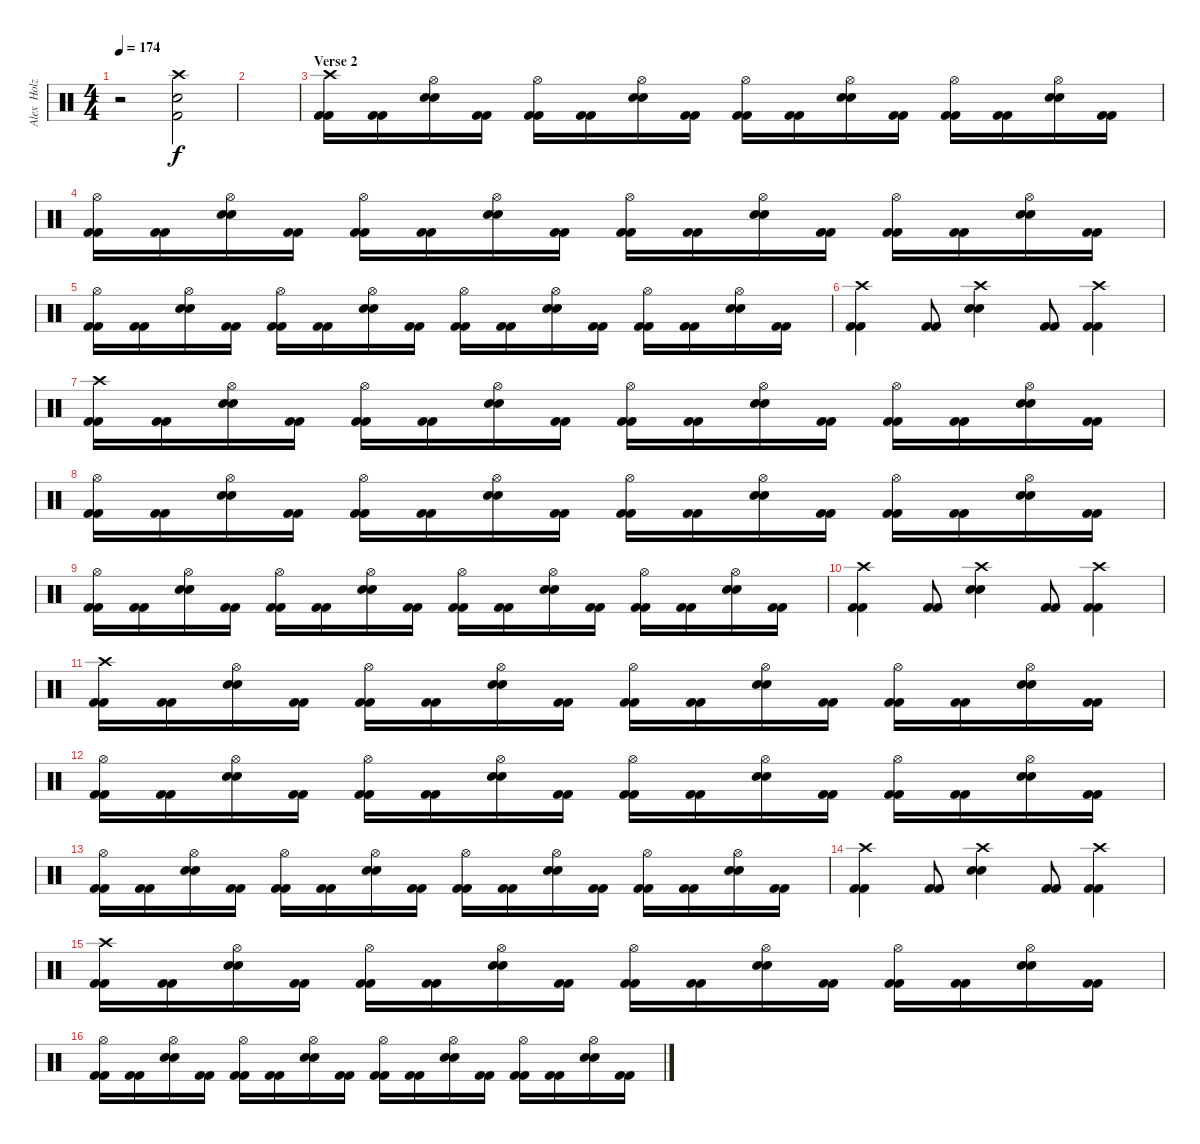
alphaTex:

\track ("Alex  Holzwarth (Drums)" "Alex  Holz") {instrument percussion}
\staff {score}
\articulation defaults
\ts (4 4)
\tempo 174
\clef neutral
\ks c
r.2{dy f} ("Crash high (hit)" "Snare (hit) 2" "Kick (hit) 2").2 |
|
\section ("" "Verse 2")
("Crash high (hit)" "Kick (hit) 2" "Kick (hit) 2").16 ("Kick (hit) 2" "Kick (hit) 2").16 ("Hi-Hat (open)" "Snare (hit) 2" "Snare (hit) 2").16 ("Kick (hit) 2" "Kick (hit) 2").16 ("Hi-Hat (open)" "Kick (hit) 2" "Kick (hit) 2").16 ("Kick (hit) 2" "Kick (hit) 2").16 ("Hi-Hat (open)" "Snare (hit) 2" "Snare (hit) 2").16 ("Kick (hit) 2" "Kick (hit) 2").16 ("Hi-Hat (open)" "Kick (hit) 2" "Kick (hit) 2").16 ("Kick (hit) 2" "Kick (hit) 2").16 ("Hi-Hat (open)" "Snare (hit) 2" "Snare (hit) 2").16 ("Kick (hit) 2" "Kick (hit) 2").16 ("Hi-Hat (open)" "Kick (hit) 2" "Kick (hit) 2").16 ("Kick (hit) 2" "Kick (hit) 2").16 ("Hi-Hat (open)" "Snare (hit) 2" "Snare (hit) 2").16 ("Kick (hit) 2" "Kick (hit) 2").16 |
("Hi-Hat (open)" "Kick (hit) 2" "Kick (hit) 2").16 ("Kick (hit) 2" "Kick (hit) 2").16 ("Hi-Hat (open)" "Snare (hit) 2" "Snare (hit) 2").16 ("Kick (hit) 2" "Kick (hit) 2").16 ("Hi-Hat (open)" "Kick (hit) 2" "Kick (hit) 2").16 ("Kick (hit) 2" "Kick (hit) 2").16 ("Hi-Hat (open)" "Snare (hit) 2" "Snare (hit) 2").16 ("Kick (hit) 2" "Kick (hit) 2").16 ("Hi-Hat (open)" "Kick (hit) 2" "Kick (hit) 2").16 ("Kick (hit) 2" "Kick (hit) 2").16 ("Hi-Hat (open)" "Snare (hit) 2" "Snare (hit) 2").16 ("Kick (hit) 2" "Kick (hit) 2").16 ("Hi-Hat (open)" "Kick (hit) 2" "Kick (hit) 2").16 ("Kick (hit) 2" "Kick (hit) 2").16 ("Hi-Hat (open)" "Snare (hit) 2" "Snare (hit) 2").16 ("Kick (hit) 2" "Kick (hit) 2").16 |
("Hi-Hat (open)" "Kick (hit) 2" "Kick (hit) 2").16 ("Kick (hit) 2" "Kick (hit) 2").16 ("Hi-Hat (open)" "Snare (hit) 2" "Snare (hit) 2").16 ("Kick (hit) 2" "Kick (hit) 2").16 ("Hi-Hat (open)" "Kick (hit) 2" "Kick (hit) 2").16 ("Kick (hit) 2" "Kick (hit) 2").16 ("Hi-Hat (open)" "Snare (hit) 2" "Snare (hit) 2").16 ("Kick (hit) 2" "Kick (hit) 2").16 ("Hi-Hat (open)" "Kick (hit) 2" "Kick (hit) 2").16 ("Kick (hit) 2" "Kick (hit) 2").16 ("Hi-Hat (open)" "Snare (hit) 2" "Snare (hit) 2").16 ("Kick (hit) 2" "Kick (hit) 2").16 ("Hi-Hat (open)" "Kick (hit) 2" "Kick (hit) 2").16 ("Kick (hit) 2" "Kick (hit) 2").16 ("Hi-Hat (open)" "Snare (hit) 2" "Snare (hit) 2").16 ("Kick (hit) 2" "Kick (hit) 2").16 |
("Crash high (hit)" "Kick (hit) 2" "Kick (hit) 2").4 ("Kick (hit) 2" "Kick (hit) 2").8 ("Crash high (hit)" "Snare (hit) 2" "Snare (hit) 2").4 ("Kick (hit) 2" "Kick (hit) 2").8 ("Crash high (hit)" "Kick (hit) 2" "Kick (hit) 2").4 |
("Crash high (hit)" "Kick (hit) 2" "Kick (hit) 2").16 ("Kick (hit) 2" "Kick (hit) 2").16 ("Hi-Hat (open)" "Snare (hit) 2" "Snare (hit) 2").16 ("Kick (hit) 2" "Kick (hit) 2").16 ("Hi-Hat (open)" "Kick (hit) 2" "Kick (hit) 2").16 ("Kick (hit) 2" "Kick (hit) 2").16 ("Hi-Hat (open)" "Snare (hit) 2" "Snare (hit) 2").16 ("Kick (hit) 2" "Kick (hit) 2").16 ("Hi-Hat (open)" "Kick (hit) 2" "Kick (hit) 2").16 ("Kick (hit) 2" "Kick (hit) 2").16 ("Hi-Hat (open)" "Snare (hit) 2" "Snare (hit) 2").16 ("Kick (hit) 2" "Kick (hit) 2").16 ("Hi-Hat (open)" "Kick (hit) 2" "Kick (hit) 2").16 ("Kick (hit) 2" "Kick (hit) 2").16 ("Hi-Hat (open)" "Snare (hit) 2" "Snare (hit) 2").16 ("Kick (hit) 2" "Kick (hit) 2").16 |
("Hi-Hat (open)" "Kick (hit) 2" "Kick (hit) 2").16 ("Kick (hit) 2" "Kick (hit) 2").16 ("Hi-Hat (open)" "Snare (hit) 2" "Snare (hit) 2").16 ("Kick (hit) 2" "Kick (hit) 2").16 ("Hi-Hat (open)" "Kick (hit) 2" "Kick (hit) 2").16 ("Kick (hit) 2" "Kick (hit) 2").16 ("Hi-Hat (open)" "Snare (hit) 2" "Snare (hit) 2").16 ("Kick (hit) 2" "Kick (hit) 2").16 ("Hi-Hat (open)" "Kick (hit) 2" "Kick (hit) 2").16 ("Kick (hit) 2" "Kick (hit) 2").16 ("Hi-Hat (open)" "Snare (hit) 2" "Snare (hit) 2").16 ("Kick (hit) 2" "Kick (hit) 2").16 ("Hi-Hat (open)" "Kick (hit) 2" "Kick (hit) 2").16 ("Kick (hit) 2" "Kick (hit) 2").16 ("Hi-Hat (open)" "Snare (hit) 2" "Snare (hit) 2").16 ("Kick (hit) 2" "Kick (hit) 2").16 |
("Hi-Hat (open)" "Kick (hit) 2" "Kick (hit) 2").16 ("Kick (hit) 2" "Kick (hit) 2").16 ("Hi-Hat (open)" "Snare (hit) 2" "Snare (hit) 2").16 ("Kick (hit) 2" "Kick (hit) 2").16 ("Hi-Hat (open)" "Kick (hit) 2" "Kick (hit) 2").16 ("Kick (hit) 2" "Kick (hit) 2").16 ("Hi-Hat (open)" "Snare (hit) 2" "Snare (hit) 2").16 ("Kick (hit) 2" "Kick (hit) 2").16 ("Hi-Hat (open)" "Kick (hit) 2" "Kick (hit) 2").16 ("Kick (hit) 2" "Kick (hit) 2").16 ("Hi-Hat (open)" "Snare (hit) 2" "Snare (hit) 2").16 ("Kick (hit) 2" "Kick (hit) 2").16 ("Hi-Hat (open)" "Kick (hit) 2" "Kick (hit) 2").16 ("Kick (hit) 2" "Kick (hit) 2").16 ("Hi-Hat (open)" "Snare (hit) 2" "Snare (hit) 2").16 ("Kick (hit) 2" "Kick (hit) 2").16 |
("Crash high (hit)" "Kick (hit) 2" "Kick (hit) 2").4 ("Kick (hit) 2" "Kick (hit) 2").8 ("Crash high (hit)" "Snare (hit) 2" "Snare (hit) 2").4 ("Kick (hit) 2" "Kick (hit) 2").8 ("Crash high (hit)" "Kick (hit) 2" "Kick (hit) 2").4 |
("Crash high (hit)" "Kick (hit) 2" "Kick (hit) 2").16 ("Kick (hit) 2" "Kick (hit) 2").16 ("Hi-Hat (open)" "Snare (hit) 2" "Snare (hit) 2").16 ("Kick (hit) 2" "Kick (hit) 2").16 ("Hi-Hat (open)" "Kick (hit) 2" "Kick (hit) 2").16 ("Kick (hit) 2" "Kick (hit) 2").16 ("Hi-Hat (open)" "Snare (hit) 2" "Snare (hit) 2").16 ("Kick (hit) 2" "Kick (hit) 2").16 ("Hi-Hat (open)" "Kick (hit) 2" "Kick (hit) 2").16 ("Kick (hit) 2" "Kick (hit) 2").16 ("Hi-Hat (open)" "Snare (hit) 2" "Snare (hit) 2").16 ("Kick (hit) 2" "Kick (hit) 2").16 ("Hi-Hat (open)" "Kick (hit) 2" "Kick (hit) 2").16 ("Kick (hit) 2" "Kick (hit) 2").16 ("Hi-Hat (open)" "Snare (hit) 2" "Snare (hit) 2").16 ("Kick (hit) 2" "Kick (hit) 2").16 |
("Hi-Hat (open)" "Kick (hit) 2" "Kick (hit) 2").16 ("Kick (hit) 2" "Kick (hit) 2").16 ("Hi-Hat (open)" "Snare (hit) 2" "Snare (hit) 2").16 ("Kick (hit) 2" "Kick (hit) 2").16 ("Hi-Hat (open)" "Kick (hit) 2" "Kick (hit) 2").16 ("Kick (hit) 2" "Kick (hit) 2").16 ("Hi-Hat (open)" "Snare (hit) 2" "Snare (hit) 2").16 ("Kick (hit) 2" "Kick (hit) 2").16 ("Hi-Hat (open)" "Kick (hit) 2" "Kick (hit) 2").16 ("Kick (hit) 2" "Kick (hit) 2").16 ("Hi-Hat (open)" "Snare (hit) 2" "Snare (hit) 2").16 ("Kick (hit) 2" "Kick (hit) 2").16 ("Hi-Hat (open)" "Kick (hit) 2" "Kick (hit) 2").16 ("Kick (hit) 2" "Kick (hit) 2").16 ("Hi-Hat (open)" "Snare (hit) 2" "Snare (hit) 2").16 ("Kick (hit) 2" "Kick (hit) 2").16 |
("Hi-Hat (open)" "Kick (hit) 2" "Kick (hit) 2").16 ("Kick (hit) 2" "Kick (hit) 2").16 ("Hi-Hat (open)" "Snare (hit) 2" "Snare (hit) 2").16 ("Kick (hit) 2" "Kick (hit) 2").16 ("Hi-Hat (open)" "Kick (hit) 2" "Kick (hit) 2").16 ("Kick (hit) 2" "Kick (hit) 2").16 ("Hi-Hat (open)" "Snare (hit) 2" "Snare (hit) 2").16 ("Kick (hit) 2" "Kick (hit) 2").16 ("Hi-Hat (open)" "Kick (hit) 2" "Kick (hit) 2").16 ("Kick (hit) 2" "Kick (hit) 2").16 ("Hi-Hat (open)" "Snare (hit) 2" "Snare (hit) 2").16 ("Kick (hit) 2" "Kick (hit) 2").16 ("Hi-Hat (open)" "Kick (hit) 2" "Kick (hit) 2").16 ("Kick (hit) 2" "Kick (hit) 2").16 ("Hi-Hat (open)" "Snare (hit) 2" "Snare (hit) 2").16 ("Kick (hit) 2" "Kick (hit) 2").16 |
("Crash high (hit)" "Kick (hit) 2" "Kick (hit) 2").4 ("Kick (hit) 2" "Kick (hit) 2").8 ("Crash high (hit)" "Snare (hit) 2" "Snare (hit) 2").4 ("Kick (hit) 2" "Kick (hit) 2").8 ("Crash high (hit)" "Kick (hit) 2" "Kick (hit) 2").4 |
("Crash high (hit)" "Kick (hit) 2" "Kick (hit) 2").16 ("Kick (hit) 2" "Kick (hit) 2").16 ("Hi-Hat (open)" "Snare (hit) 2" "Snare (hit) 2").16 ("Kick (hit) 2" "Kick (hit) 2").16 ("Hi-Hat (open)" "Kick (hit) 2" "Kick (hit) 2").16 ("Kick (hit) 2" "Kick (hit) 2").16 ("Hi-Hat (open)" "Snare (hit) 2" "Snare (hit) 2").16 ("Kick (hit) 2" "Kick (hit) 2").16 ("Hi-Hat (open)" "Kick (hit) 2" "Kick (hit) 2").16 ("Kick (hit) 2" "Kick (hit) 2").16 ("Hi-Hat (open)" "Snare (hit) 2" "Snare (hit) 2").16 ("Kick (hit) 2" "Kick (hit) 2").16 ("Hi-Hat (open)" "Kick (hit) 2" "Kick (hit) 2").16 ("Kick (hit) 2" "Kick (hit) 2").16 ("Hi-Hat (open)" "Snare (hit) 2" "Snare (hit) 2").16 ("Kick (hit) 2" "Kick (hit) 2").16 |
("Hi-Hat (open)" "Kick (hit) 2" "Kick (hit) 2").16 ("Kick (hit) 2" "Kick (hit) 2").16 ("Hi-Hat (open)" "Snare (hit) 2" "Snare (hit) 2").16 ("Kick (hit) 2" "Kick (hit) 2").16 ("Hi-Hat (open)" "Kick (hit) 2" "Kick (hit) 2").16 ("Kick (hit) 2" "Kick (hit) 2").16 ("Hi-Hat (open)" "Snare (hit) 2" "Snare (hit) 2").16 ("Kick (hit) 2" "Kick (hit) 2").16 ("Hi-Hat (open)" "Kick (hit) 2" "Kick (hit) 2").16 ("Kick (hit) 2" "Kick (hit) 2").16 ("Hi-Hat (open)" "Snare (hit) 2" "Snare (hit) 2").16 ("Kick (hit) 2" "Kick (hit) 2").16 ("Hi-Hat (open)" "Kick (hit) 2" "Kick (hit) 2").16 ("Kick (hit) 2" "Kick (hit) 2").16 ("Hi-Hat (open)" "Snare (hit) 2" "Snare (hit) 2").16 ("Kick (hit) 2" "Kick (hit) 2").16
